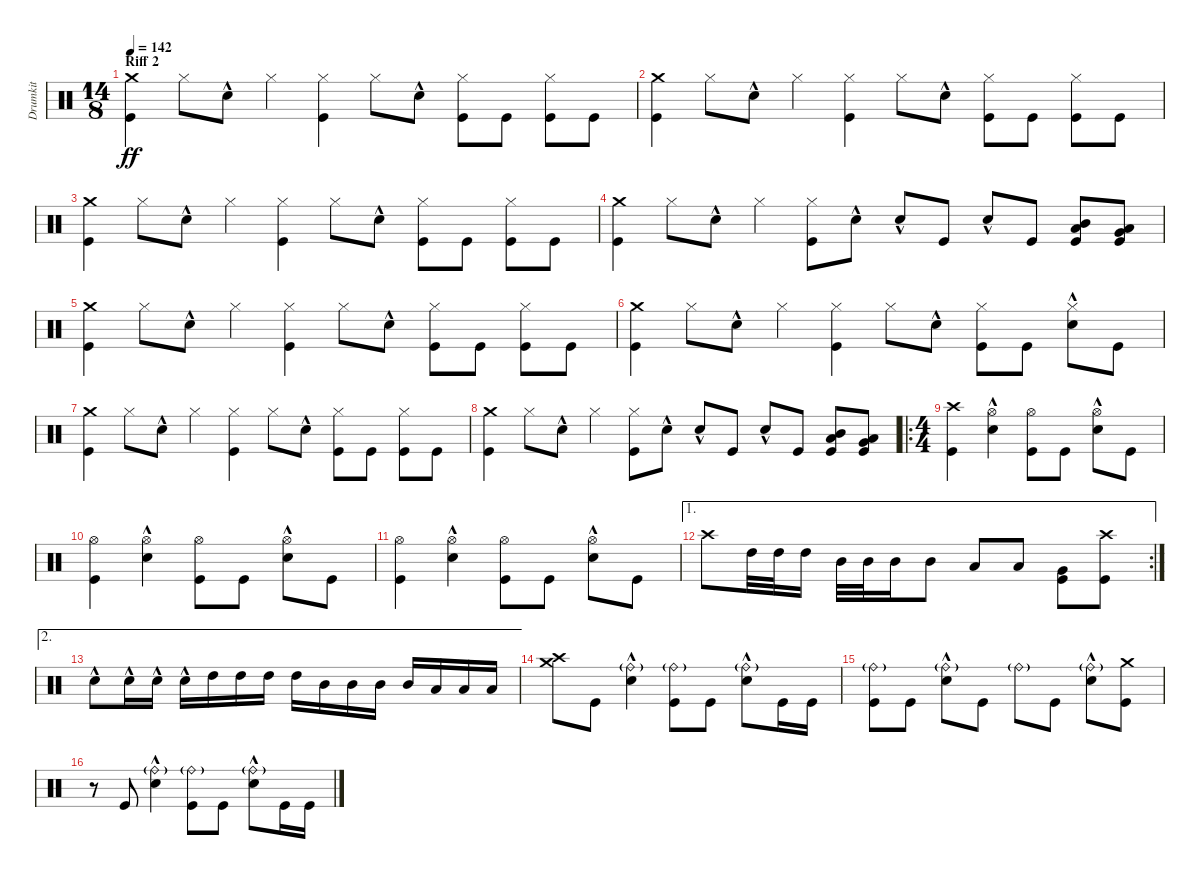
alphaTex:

\track ("Drumkit" "Drumkit") {instrument percussion}
\staff {score}
\articulation defaults
\ts (14 8)
\section ("" "Riff 2")
\tempo 142
\clef neutral
\ks c
("Crash medium (hit)" "Kick (hit)").4{dy ff} "Hi-Hat (closed)".8 "Snare (hit) 2"{hac}.8 "Hi-Hat (closed)".4 ("Hi-Hat (closed)" "Kick (hit)").4 "Hi-Hat (closed)".8 "Snare (hit) 2"{hac}.8 ("Hi-Hat (closed)" "Kick (hit)").8 "Kick (hit)".8 ("Hi-Hat (closed)" "Kick (hit)").8 "Kick (hit)".8 |
("Crash medium (hit)" "Kick (hit)").4 "Hi-Hat (closed)".8 "Snare (hit) 2"{hac}.8 "Hi-Hat (closed)".4 ("Hi-Hat (closed)" "Kick (hit)").4 "Hi-Hat (closed)".8 "Snare (hit) 2"{hac}.8 ("Hi-Hat (closed)" "Kick (hit)").8 "Kick (hit)".8 ("Hi-Hat (closed)" "Kick (hit)").8 "Kick (hit)".8 |
("Crash medium (hit)" "Kick (hit)").4 "Hi-Hat (closed)".8 "Snare (hit) 2"{hac}.8 "Hi-Hat (closed)".4 ("Hi-Hat (closed)" "Kick (hit)").4 "Hi-Hat (closed)".8 "Snare (hit) 2"{hac}.8 ("Hi-Hat (closed)" "Kick (hit)").8 "Kick (hit)".8 ("Hi-Hat (closed)" "Kick (hit)").8 "Kick (hit)".8 |
("Crash medium (hit)" "Kick (hit)").4 "Hi-Hat (closed)".8 "Snare (hit) 2"{hac}.8 "Hi-Hat (closed)".4 ("Hi-Hat (closed)" "Kick (hit)").8 "Snare (hit) 2"{hac}.8 "Snare (hit) 2"{hac}.8 "Kick (hit)".8 "Snare (hit) 2"{hac}.8 "Kick (hit)".8 ("Mid Tom (hit)" "Low Tom (hit)" "Kick (hit)").8 ("Very Low Tom (hit)" "Low Tom (hit)" "Kick (hit)").8 |
("Crash medium (hit)" "Kick (hit)").4 "Hi-Hat (closed)".8 "Snare (hit) 2"{hac}.8 "Hi-Hat (closed)".4 ("Hi-Hat (closed)" "Kick (hit)").4 "Hi-Hat (closed)".8 "Snare (hit) 2"{hac}.8 ("Hi-Hat (closed)" "Kick (hit)").8 "Kick (hit)".8 ("Hi-Hat (closed)" "Kick (hit)").8 "Kick (hit)".8 |
("Crash medium (hit)" "Kick (hit)").4 "Hi-Hat (closed)".8 "Snare (hit) 2"{hac}.8 "Hi-Hat (closed)".4 ("Hi-Hat (closed)" "Kick (hit)").4 "Hi-Hat (closed)".8 "Snare (hit) 2"{hac}.8 ("Hi-Hat (closed)" "Kick (hit)").8 "Kick (hit)".8 ("Snare (hit) 2"{hac} "Hi-Hat (closed)").8 "Kick (hit)".8 |
("Crash medium (hit)" "Kick (hit)").4 "Hi-Hat (closed)".8 "Snare (hit) 2"{hac}.8 "Hi-Hat (closed)".4 ("Hi-Hat (closed)" "Kick (hit)").4 "Hi-Hat (closed)".8 "Snare (hit) 2"{hac}.8 ("Hi-Hat (closed)" "Kick (hit)").8 "Kick (hit)".8 ("Hi-Hat (closed)" "Kick (hit)").8 "Kick (hit)".8 |
("Crash medium (hit)" "Kick (hit)").4 "Hi-Hat (closed)".8 "Snare (hit) 2"{hac}.8 "Hi-Hat (closed)".4 ("Hi-Hat (closed)" "Kick (hit)").8 "Snare (hit) 2"{hac}.8 "Snare (hit) 2"{hac}.8 "Kick (hit)".8 "Snare (hit) 2"{hac}.8 "Kick (hit)".8 ("Mid Tom (hit)" "Low Tom (hit)" "Kick (hit)").8 ("Very Low Tom (hit)" "Low Tom (hit)" "Kick (hit)").8 |
\ro
\ts (4 4)
("Kick (hit)" "Crash high (hit)").4 ("Snare (hit) 2"{hac} "Hi-Hat (open)").4 ("Kick (hit)" "Hi-Hat (open)").8 "Kick (hit)".8 ("Snare (hit) 2"{hac} "Hi-Hat (open)").8 "Kick (hit)".8 |
("Kick (hit)" "Hi-Hat (open)").4 ("Snare (hit) 2"{hac} "Hi-Hat (open)").4 ("Kick (hit)" "Hi-Hat (open)").8 "Kick (hit)".8 ("Snare (hit) 2"{hac} "Hi-Hat (open)").8 "Kick (hit)".8 |
("Kick (hit)" "Hi-Hat (open)").4 ("Snare (hit) 2"{hac} "Hi-Hat (open)").4 ("Kick (hit)" "Hi-Hat (open)").8 "Kick (hit)".8 ("Snare (hit) 2"{hac} "Hi-Hat (open)").8 "Kick (hit)".8 |
\ae 1
\rc 2 "Crash high (hit)".8 "High Tom (hit)".32 "High Tom (hit)".32 "High Tom (hit)".16 "Mid Tom (hit)".32 "Mid Tom (hit)".32 "Mid Tom (hit)".16 "Mid Tom (hit)".8 "Low Tom (hit)".8 "Low Tom (hit)".8
("Very Low Tom (hit)" "Kick (hit)").8 ("Kick (hit)" "Crash high (hit)").8 |
\ae 2 "Snare (hit) 2"{hac}.8 "Snare (hit) 2"{hac}.16 "Snare (hit) 2"{hac}.16 "Snare (hit) 2"{hac}.16 "High Tom (hit)".16 "High Tom (hit)".16 "High Tom (hit)".16 "High Tom (hit)".16 "Mid Tom (hit)".16 "Mid Tom (hit)".16 "Mid Tom (hit)".16 "Mid Tom (hit)".16 "Low Tom (hit)".16 "Low Tom (hit)".16 "Low Tom (hit)".16
|
("Crash high (hit)" "Crash medium (hit)").8 "Kick (hit)".8 ("Snare (hit) 2"{hac} "Ride (bell)"{g}).4 ("Kick (hit)" "Ride (bell)"{g}).8 "Kick (hit)".8 ("Snare (hit) 2"{hac} "Ride (bell)"{g}).8 "Kick (hit)".16 "Kick (hit)".16 |
("Ride (bell)"{g} "Kick (hit)").8 "Kick (hit)".8 ("Snare (hit) 2"{hac} "Ride (bell)"{g}).8 "Kick (hit)".8 "Ride (bell)"{g}.8 "Kick (hit)".8 ("Snare (hit) 2"{hac} "Ride (bell)"{g}).8 ("Kick (hit)" "Crash medium (hit)").8 |
r.8 "Kick (hit)".8 ("Snare (hit) 2"{hac} "Ride (bell)"{g}).4 ("Kick (hit)" "Ride (bell)"{g}).8 "Kick (hit)".8 ("Snare (hit) 2"{hac} "Ride (bell)"{g}).8 "Kick (hit)".16 "Kick (hit)".16
